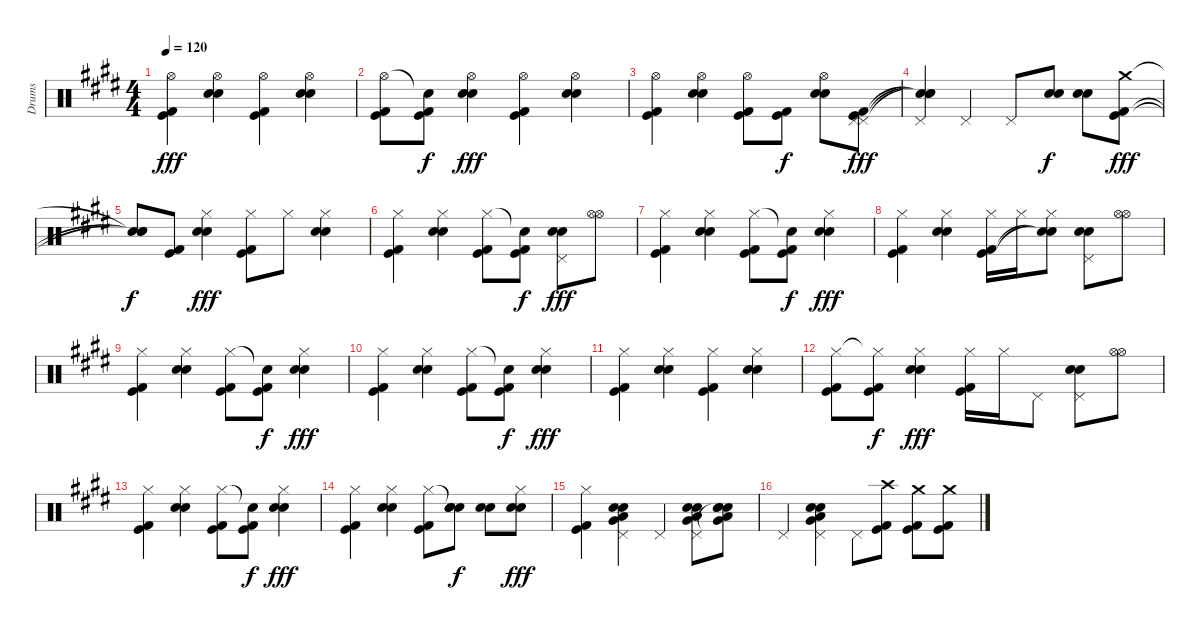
\track ("Drums" "Drums") {instrument percussion}
\staff {score}
\articulation defaults
\ts (4 4)
\tempo 120
\clef neutral
\ks e
("Hi-Hat (open)" "Kick (hit)" "Kick (hit) 2").4{dy fff} ("Hi-Hat (open)" "Electric Snare (hit)" "Snare (hit) 2").4 ("Hi-Hat (open)" "Kick (hit)" "Kick (hit) 2").4 ("Hi-Hat (open)" "Electric Snare (hit)" "Snare (hit) 2").4 |
("Hi-Hat (open)" "Kick (hit)" "Kick (hit) 2").8 ("Snare (hit)"{t} "Kick (hit)" "Kick (hit) 2").8{dy f} ("Hi-Hat (open)" "Electric Snare (hit)" "Snare (hit) 2").4{dy fff} ("Hi-Hat (open)" "Kick (hit)" "Kick (hit) 2").4 ("Hi-Hat (open)" "Electric Snare (hit)" "Snare (hit) 2").4 |
("Hi-Hat (open)" "Kick (hit)" "Kick (hit) 2").4 ("Hi-Hat (open)" "Electric Snare (hit)" "Snare (hit) 2").4 ("Hi-Hat (open)" "Kick (hit)" "Kick (hit) 2").8 ("Kick (hit)" "Kick (hit) 2").8{dy f} ("Hi-Hat (open)" "Electric Snare (hit)" "Snare (hit) 2").8 ("Pedal Hi-Hat (hit)" "Pedal Hi-Hat (hit)" "Kick (hit)" "Kick (hit) 2").8{dy fff} |
("Pedal Hi-Hat (hit)" "Snare (hit)"{t} "Snare (hit)"{t} "Snare (hit)"{t}).4 "Pedal Hi-Hat (hit)".4 "Pedal Hi-Hat (hit)".8 ("Electric Snare (hit)" "Snare (hit) 2").8{dy f} ("Electric Snare (hit)" "Snare (hit) 2").8 ("Crash medium (hit)" "Kick (hit)" "Kick (hit) 2").8{dy fff} |
("Snare (hit)"{t} "Snare (hit)"{t} "Snare (hit)"{t}).8{dy f} ("Kick (hit)" "Kick (hit) 2").8 ("Hi-Hat (closed)" "Electric Snare (hit)" "Snare (hit) 2").4{dy fff} ("Hi-Hat (closed)" "Kick (hit)" "Kick (hit) 2").8 "Hi-Hat (closed)".8 ("Hi-Hat (closed)" "Electric Snare (hit)" "Snare (hit) 2").4 |
("Hi-Hat (closed)" "Kick (hit)" "Kick (hit) 2").4 ("Hi-Hat (closed)" "Electric Snare (hit)" "Snare (hit) 2").4 ("Hi-Hat (closed)" "Kick (hit)" "Kick (hit) 2").8 ("Snare (hit)"{t} "Kick (hit)" "Kick (hit) 2").8{dy f} ("Pedal Hi-Hat (hit)" "Electric Snare (hit)" "Snare (hit) 2").8{dy fff} ("Hi-Hat (open)" "Hi-Hat (open)").8 |
("Hi-Hat (closed)" "Kick (hit)" "Kick (hit) 2").4 ("Hi-Hat (closed)" "Electric Snare (hit)" "Snare (hit) 2").4 ("Hi-Hat (closed)" "Kick (hit)" "Kick (hit) 2").8 ("Snare (hit)"{t} "Kick (hit)" "Kick (hit) 2").8{dy f} ("Hi-Hat (closed)" "Electric Snare (hit)" "Snare (hit) 2").4{dy fff} |
("Hi-Hat (closed)" "Kick (hit)" "Kick (hit) 2").4 ("Hi-Hat (closed)" "Electric Snare (hit)" "Snare (hit) 2").4 ("Hi-Hat (closed)" "Kick (hit)" "Kick (hit) 2").16 "Hi-Hat (closed)".16 ("Hi-Hat (closed)" "Snare (hit)"{t} "Snare (hit)"{t}).8 ("Pedal Hi-Hat (hit)" "Electric Snare (hit)" "Snare (hit) 2").8 ("Hi-Hat (open)" "Hi-Hat (open)").8 |
("Hi-Hat (closed)" "Kick (hit)" "Kick (hit) 2").4 ("Hi-Hat (closed)" "Electric Snare (hit)" "Snare (hit) 2").4 ("Hi-Hat (closed)" "Kick (hit)" "Kick (hit) 2").8 ("Snare (hit)"{t} "Kick (hit)" "Kick (hit) 2").8{dy f} ("Hi-Hat (closed)" "Electric Snare (hit)" "Snare (hit) 2").4{dy fff} |
("Hi-Hat (closed)" "Kick (hit)" "Kick (hit) 2").4 ("Hi-Hat (closed)" "Electric Snare (hit)" "Snare (hit) 2").4 ("Hi-Hat (closed)" "Kick (hit)" "Kick (hit) 2").8 ("Snare (hit)"{t} "Kick (hit)" "Kick (hit) 2").8{dy f} ("Hi-Hat (closed)" "Electric Snare (hit)" "Snare (hit) 2").4{dy fff} |
("Hi-Hat (closed)" "Kick (hit)" "Kick (hit) 2").4 ("Hi-Hat (closed)" "Electric Snare (hit)" "Snare (hit) 2").4 ("Hi-Hat (closed)" "Kick (hit)" "Kick (hit) 2").4 ("Hi-Hat (closed)" "Electric Snare (hit)" "Snare (hit) 2").4 |
("Hi-Hat (closed)" "Kick (hit)" "Kick (hit) 2").8 ("Hi-Hat (closed)"{t} "Kick (hit)" "Kick (hit) 2").8{dy f} ("Hi-Hat (closed)" "Electric Snare (hit)" "Snare (hit) 2").4{dy fff} ("Hi-Hat (closed)" "Kick (hit)" "Kick (hit) 2").16 "Hi-Hat (closed)".16 "Pedal Hi-Hat (hit)".8 ("Pedal Hi-Hat (hit)" "Electric Snare (hit)" "Snare (hit) 2").8 ("Hi-Hat (open)" "Hi-Hat (open)").8 |
("Hi-Hat (closed)" "Kick (hit)" "Kick (hit) 2").4 ("Hi-Hat (closed)" "Electric Snare (hit)" "Snare (hit) 2").4 ("Hi-Hat (closed)" "Kick (hit)" "Kick (hit) 2").8 ("Snare (hit)"{t} "Kick (hit)" "Kick (hit) 2").8{dy f} ("Hi-Hat (closed)" "Electric Snare (hit)" "Snare (hit) 2").4{dy fff} |
("Hi-Hat (closed)" "Kick (hit)" "Kick (hit) 2").4 ("Hi-Hat (closed)" "Electric Snare (hit)" "Snare (hit) 2").4 ("Hi-Hat (closed)" "Kick (hit)" "Kick (hit) 2").8 ("Snare (hit)"{t} "Electric Snare (hit)" "Snare (hit) 2").8{dy f} ("Electric Snare (hit)" "Snare (hit) 2").8 ("Hi-Hat (closed)" "Electric Snare (hit)" "Snare (hit) 2").8{dy fff} |
("Hi-Hat (closed)" "Kick (hit)" "Kick (hit) 2").4 ("Pedal Hi-Hat (hit)" "Electric Snare (hit)" "Snare (hit) 2" "Very Low Tom (hit)" "Low Floor Tom (hit)").4 "Pedal Hi-Hat (hit)".4 ("Pedal Hi-Hat (hit)" "Electric Snare (hit)" "Snare (hit) 2" "Very Low Tom (hit)" "Low Floor Tom (hit)").8 ("Snare (hit)"{t} "Electric Snare (hit)" "Snare (hit) 2" "Very Low Tom (hit)" "Low Floor Tom (hit)").8 |
"Pedal Hi-Hat (hit)".4 ("Pedal Hi-Hat (hit)" "Electric Snare (hit)" "Snare (hit) 2" "Very Low Tom (hit)" "Low Floor Tom (hit)").4 "Pedal Hi-Hat (hit)".8 ("Crash high (hit)" "Kick (hit)" "Kick (hit) 2").8 ("Crash medium (hit)" "Kick (hit)" "Kick (hit) 2").8 ("Crash medium (hit)" "Kick (hit)" "Kick (hit) 2").8
